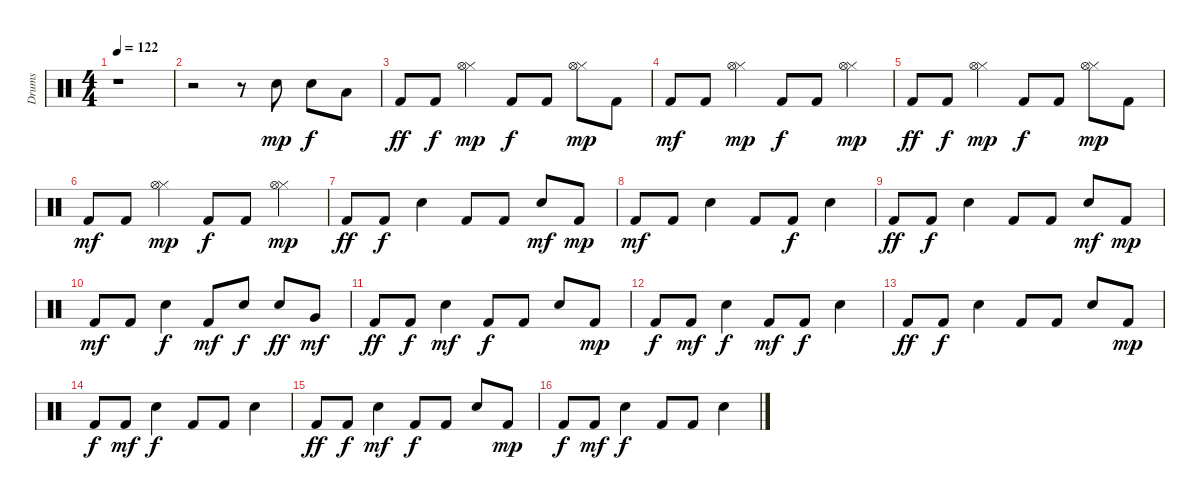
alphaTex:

\track ("Drums" "Drums") {instrument percussion}
\staff {score}
\articulation defaults
\ts (4 4)
\tempo 122
\clef neutral
\ks c
r.1{dy mp} |
r.2 r.8 "Snare (hit) 2".8 "Snare (hit) 2".8{dy f} "Low Tom (hit)".8 |
"Kick (hit) 2".8{dy ff} "Kick (hit) 2".8{dy f} ("Hi-Hat (closed)" "Hi-Hat (open)").4{dy mp} "Kick (hit) 2".8{dy f} "Kick (hit) 2".8 ("Hi-Hat (closed)" "Hi-Hat (open)").8{dy mp} "Kick (hit) 2".8 |
"Kick (hit) 2".8{dy mf} "Kick (hit) 2".8 ("Hi-Hat (closed)" "Hi-Hat (open)").4{dy mp} "Kick (hit) 2".8{dy f} "Kick (hit) 2".8 ("Hi-Hat (closed)" "Hi-Hat (open)").4{dy mp} |
"Kick (hit) 2".8{dy ff} "Kick (hit) 2".8{dy f} ("Hi-Hat (closed)" "Hi-Hat (open)").4{dy mp} "Kick (hit) 2".8{dy f} "Kick (hit) 2".8 ("Hi-Hat (closed)" "Hi-Hat (open)").8{dy mp} "Kick (hit) 2".8 |
"Kick (hit) 2".8{dy mf} "Kick (hit) 2".8 ("Hi-Hat (closed)" "Hi-Hat (open)").4{dy mp} "Kick (hit) 2".8{dy f} "Kick (hit) 2".8 ("Hi-Hat (closed)" "Hi-Hat (open)").4{dy mp} |
"Kick (hit) 2".8{dy ff} "Kick (hit) 2".8{dy f} "Snare (hit) 2".4 "Kick (hit) 2".8 "Kick (hit) 2".8 "Snare (hit) 2".8{dy mf} "Kick (hit) 2".8{dy mp} |
"Kick (hit) 2".8{dy mf} "Kick (hit) 2".8 "Snare (hit) 2".4 "Kick (hit) 2".8 "Kick (hit) 2".8{dy f} "Snare (hit) 2".4 |
"Kick (hit) 2".8{dy ff} "Kick (hit) 2".8{dy f} "Snare (hit) 2".4 "Kick (hit) 2".8 "Kick (hit) 2".8 "Snare (hit) 2".8{dy mf} "Kick (hit) 2".8{dy mp} |
"Kick (hit) 2".8{dy mf} "Kick (hit) 2".8 "Snare (hit) 2".4{dy f} "Kick (hit) 2".8{dy mf} "Snare (hit) 2".8{dy f} "Snare (hit) 2".8{dy ff} "Very Low Tom (hit)".8{dy mf} |
"Kick (hit) 2".8{dy ff} "Kick (hit) 2".8{dy f} "Snare (hit) 2".4{dy mf} "Kick (hit) 2".8{dy f} "Kick (hit) 2".8 "Snare (hit) 2".8 "Kick (hit) 2".8{dy mp} |
"Kick (hit) 2".8{dy f} "Kick (hit) 2".8{dy mf} "Snare (hit) 2".4{dy f} "Kick (hit) 2".8{dy mf} "Kick (hit) 2".8{dy f} "Snare (hit) 2".4 |
"Kick (hit) 2".8{dy ff} "Kick (hit) 2".8{dy f} "Snare (hit) 2".4 "Kick (hit) 2".8 "Kick (hit) 2".8 "Snare (hit) 2".8 "Kick (hit) 2".8{dy mp} |
"Kick (hit) 2".8{dy f} "Kick (hit) 2".8{dy mf} "Snare (hit) 2".4{dy f} "Kick (hit) 2".8 "Kick (hit) 2".8 "Snare (hit) 2".4 |
"Kick (hit) 2".8{dy ff} "Kick (hit) 2".8{dy f} "Snare (hit) 2".4{dy mf} "Kick (hit) 2".8{dy f} "Kick (hit) 2".8 "Snare (hit) 2".8 "Kick (hit) 2".8{dy mp} |
"Kick (hit) 2".8{dy f} "Kick (hit) 2".8{dy mf} "Snare (hit) 2".4{dy f} "Kick (hit) 2".8 "Kick (hit) 2".8 "Snare (hit) 2".4
